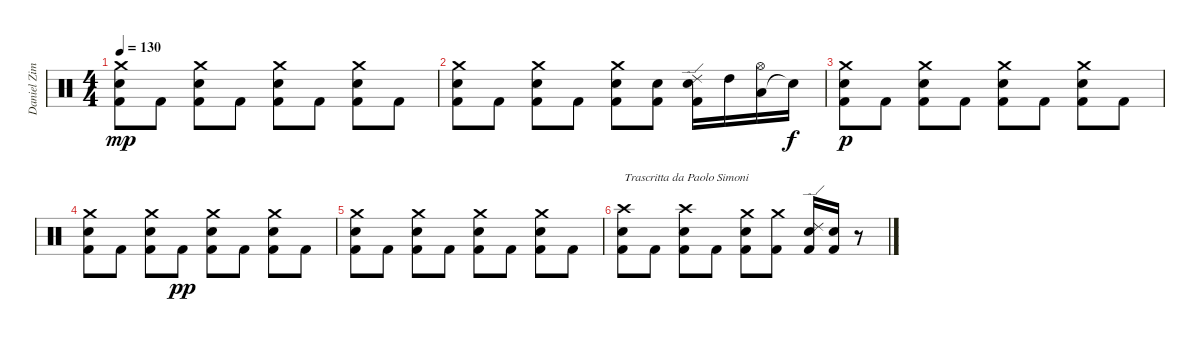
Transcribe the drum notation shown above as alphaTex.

\track ("Daniel Zimmermann" "Daniel Zim") {instrument percussion}
\staff {score}
\articulation defaults
\ts (4 4)
\tempo 130
\clef neutral
\ks c
("Kick (hit) 2" "Electric Snare (hit)" "Crash medium (hit)").8{dy mp} "Kick (hit) 2".8 ("Kick (hit) 2" "Electric Snare (hit)" "Crash medium (hit)").8 "Kick (hit) 2".8 ("Kick (hit) 2" "Electric Snare (hit)" "Crash medium (hit)").8 "Kick (hit) 2".8 ("Kick (hit) 2" "Electric Snare (hit)" "Crash medium (hit)").8 "Kick (hit) 2".8 |
("Kick (hit) 2" "Electric Snare (hit)" "Crash medium (hit)").8 "Kick (hit) 2".8 ("Kick (hit) 2" "Electric Snare (hit)" "Crash medium (hit)").8 "Kick (hit) 2".8 ("Kick (hit) 2" "Electric Snare (hit)" "Crash medium (hit)").8 ("Kick (hit) 2" "Electric Snare (hit)").8 ("Kick (hit) 2" "Electric Snare (hit)" "Ride (edge) 2").16 "High Tom (hit)".16 ("Low Tom (hit)" "Hi-Hat (open)").16 "Snare (hit)"{t}.16{dy f} |
("Kick (hit) 2" "Electric Snare (hit)" "Crash medium (hit)").8{dy p} "Kick (hit) 2".8 ("Kick (hit) 2" "Electric Snare (hit)" "Crash medium (hit)").8 "Kick (hit) 2".8 ("Kick (hit) 2" "Electric Snare (hit)" "Crash medium (hit)").8 "Kick (hit) 2".8 ("Kick (hit) 2" "Electric Snare (hit)" "Crash medium (hit)").8 "Kick (hit) 2".8 |
("Kick (hit) 2" "Electric Snare (hit)" "Crash medium (hit)").8 "Kick (hit) 2".8 ("Kick (hit) 2" "Electric Snare (hit)" "Crash medium (hit)").8 "Kick (hit) 2".8{dy pp} ("Kick (hit) 2" "Electric Snare (hit)" "Crash medium (hit)").8 "Kick (hit) 2".8 ("Kick (hit) 2" "Electric Snare (hit)" "Crash medium (hit)").8 "Kick (hit) 2".8 |
("Kick (hit) 2" "Electric Snare (hit)" "Crash medium (hit)").8 "Kick (hit) 2".8 ("Kick (hit) 2" "Electric Snare (hit)" "Crash medium (hit)").8 "Kick (hit) 2".8 ("Kick (hit) 2" "Electric Snare (hit)" "Crash medium (hit)").8 "Kick (hit) 2".8 ("Kick (hit) 2" "Electric Snare (hit)" "Crash medium (hit)").8 "Kick (hit) 2".8 |
("Kick (hit) 2" "Electric Snare (hit)" "Crash high (hit)").8{txt "Trascritta da Paolo Simoni"} "Kick (hit) 2".8 ("Kick (hit) 2" "Electric Snare (hit)" "Crash high (hit)").8 "Kick (hit) 2".8 ("Kick (hit) 2" "Electric Snare (hit)" "Crash medium (hit)").8 ("Kick (hit) 2" "Crash medium (hit)").8 ("Kick (hit) 2" "Electric Snare (hit)" "Ride (edge) 2").16 ("Kick (hit) 2" "Electric Snare (hit)").16 r.8
